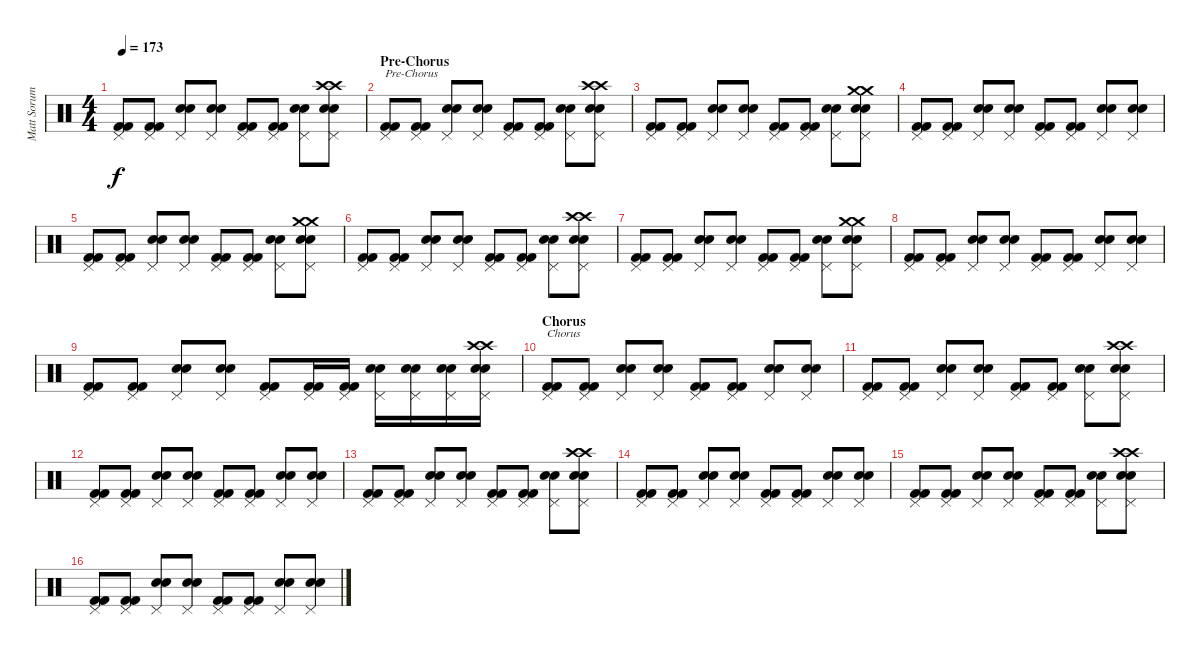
\track ("Matt Sorum" "Matt Sorum") {instrument percussion}
\staff {score}
\articulation defaults
\ts (4 4)
\tempo 173
\clef neutral
\ks c
("Pedal Hi-Hat (hit)" "Kick (hit) 2" "Kick (hit) 2").8{dy f} ("Pedal Hi-Hat (hit)" "Kick (hit) 2" "Kick (hit) 2").8 ("Pedal Hi-Hat (hit)" "Snare (hit) 2" "Snare (hit) 2").8 ("Pedal Hi-Hat (hit)" "Snare (hit) 2" "Snare (hit) 2").8 ("Pedal Hi-Hat (hit)" "Kick (hit) 2" "Kick (hit) 2").8 ("Pedal Hi-Hat (hit)" "Kick (hit) 2" "Kick (hit) 2").8 ("Pedal Hi-Hat (hit)" "Snare (hit) 2" "Snare (hit) 2").8 ("Crash high (hit)" "Crash high (hit)" "Pedal Hi-Hat (hit)" "Snare (hit) 2" "Snare (hit) 2").8 |
\section ("" "Pre-Chorus")
("Pedal Hi-Hat (hit)" "Kick (hit) 2" "Kick (hit) 2").8{txt "Pre-Chorus"} ("Pedal Hi-Hat (hit)" "Kick (hit) 2" "Kick (hit) 2").8 ("Pedal Hi-Hat (hit)" "Snare (hit) 2" "Snare (hit) 2").8 ("Pedal Hi-Hat (hit)" "Snare (hit) 2" "Snare (hit) 2").8 ("Pedal Hi-Hat (hit)" "Kick (hit) 2" "Kick (hit) 2").8 ("Pedal Hi-Hat (hit)" "Kick (hit) 2" "Kick (hit) 2").8 ("Pedal Hi-Hat (hit)" "Snare (hit) 2" "Snare (hit) 2").8 ("Crash high (hit)" "Crash high (hit)" "Pedal Hi-Hat (hit)" "Snare (hit) 2" "Snare (hit) 2").8 |
("Pedal Hi-Hat (hit)" "Kick (hit) 2" "Kick (hit) 2").8 ("Pedal Hi-Hat (hit)" "Kick (hit) 2" "Kick (hit) 2").8 ("Pedal Hi-Hat (hit)" "Snare (hit) 2" "Snare (hit) 2").8 ("Pedal Hi-Hat (hit)" "Snare (hit) 2" "Snare (hit) 2").8 ("Pedal Hi-Hat (hit)" "Kick (hit) 2" "Kick (hit) 2").8 ("Pedal Hi-Hat (hit)" "Kick (hit) 2" "Kick (hit) 2").8 ("Pedal Hi-Hat (hit)" "Snare (hit) 2" "Snare (hit) 2").8 ("Crash medium (hit)" "Crash medium (hit)" "Pedal Hi-Hat (hit)" "Snare (hit) 2" "Snare (hit) 2").8 |
("Pedal Hi-Hat (hit)" "Kick (hit) 2" "Kick (hit) 2").8 ("Pedal Hi-Hat (hit)" "Kick (hit) 2" "Kick (hit) 2").8 ("Pedal Hi-Hat (hit)" "Snare (hit) 2" "Snare (hit) 2").8 ("Pedal Hi-Hat (hit)" "Snare (hit) 2" "Snare (hit) 2").8 ("Pedal Hi-Hat (hit)" "Kick (hit) 2" "Kick (hit) 2").8 ("Pedal Hi-Hat (hit)" "Kick (hit) 2" "Kick (hit) 2").8 ("Pedal Hi-Hat (hit)" "Snare (hit) 2" "Snare (hit) 2").8 ("Pedal Hi-Hat (hit)" "Snare (hit) 2" "Snare (hit) 2").8 |
("Pedal Hi-Hat (hit)" "Kick (hit) 2" "Kick (hit) 2").8 ("Pedal Hi-Hat (hit)" "Kick (hit) 2" "Kick (hit) 2").8 ("Pedal Hi-Hat (hit)" "Snare (hit) 2" "Snare (hit) 2").8 ("Pedal Hi-Hat (hit)" "Snare (hit) 2" "Snare (hit) 2").8 ("Pedal Hi-Hat (hit)" "Kick (hit) 2" "Kick (hit) 2").8 ("Pedal Hi-Hat (hit)" "Kick (hit) 2" "Kick (hit) 2").8 ("Pedal Hi-Hat (hit)" "Snare (hit) 2" "Snare (hit) 2").8 ("Crash medium (hit)" "Crash medium (hit)" "Pedal Hi-Hat (hit)" "Snare (hit) 2" "Snare (hit) 2").8 |
("Pedal Hi-Hat (hit)" "Kick (hit) 2" "Kick (hit) 2").8 ("Pedal Hi-Hat (hit)" "Kick (hit) 2" "Kick (hit) 2").8 ("Pedal Hi-Hat (hit)" "Snare (hit) 2" "Snare (hit) 2").8 ("Pedal Hi-Hat (hit)" "Snare (hit) 2" "Snare (hit) 2").8 ("Pedal Hi-Hat (hit)" "Kick (hit) 2" "Kick (hit) 2").8 ("Pedal Hi-Hat (hit)" "Kick (hit) 2" "Kick (hit) 2").8 ("Pedal Hi-Hat (hit)" "Snare (hit) 2" "Snare (hit) 2").8 ("Crash high (hit)" "Crash high (hit)" "Pedal Hi-Hat (hit)" "Snare (hit) 2" "Snare (hit) 2").8 |
("Pedal Hi-Hat (hit)" "Kick (hit) 2" "Kick (hit) 2").8 ("Pedal Hi-Hat (hit)" "Kick (hit) 2" "Kick (hit) 2").8 ("Pedal Hi-Hat (hit)" "Snare (hit) 2" "Snare (hit) 2").8 ("Pedal Hi-Hat (hit)" "Snare (hit) 2" "Snare (hit) 2").8 ("Pedal Hi-Hat (hit)" "Kick (hit) 2" "Kick (hit) 2").8 ("Pedal Hi-Hat (hit)" "Kick (hit) 2" "Kick (hit) 2").8 ("Pedal Hi-Hat (hit)" "Snare (hit) 2" "Snare (hit) 2").8 ("Crash medium (hit)" "Crash medium (hit)" "Pedal Hi-Hat (hit)" "Snare (hit) 2" "Snare (hit) 2").8 |
("Pedal Hi-Hat (hit)" "Kick (hit) 2" "Kick (hit) 2").8 ("Pedal Hi-Hat (hit)" "Kick (hit) 2" "Kick (hit) 2").8 ("Pedal Hi-Hat (hit)" "Snare (hit) 2" "Snare (hit) 2").8 ("Pedal Hi-Hat (hit)" "Snare (hit) 2" "Snare (hit) 2").8 ("Pedal Hi-Hat (hit)" "Kick (hit) 2" "Kick (hit) 2").8 ("Pedal Hi-Hat (hit)" "Kick (hit) 2" "Kick (hit) 2").8 ("Pedal Hi-Hat (hit)" "Snare (hit) 2" "Snare (hit) 2").8 ("Pedal Hi-Hat (hit)" "Snare (hit) 2" "Snare (hit) 2").8 |
("Pedal Hi-Hat (hit)" "Kick (hit) 2" "Kick (hit) 2").8 ("Pedal Hi-Hat (hit)" "Kick (hit) 2" "Kick (hit) 2").8 ("Pedal Hi-Hat (hit)" "Snare (hit) 2" "Snare (hit) 2").8 ("Pedal Hi-Hat (hit)" "Snare (hit) 2" "Snare (hit) 2").8 ("Pedal Hi-Hat (hit)" "Kick (hit) 2" "Kick (hit) 2").8 ("Pedal Hi-Hat (hit)" "Kick (hit) 2" "Kick (hit) 2").16 ("Pedal Hi-Hat (hit)" "Kick (hit) 2" "Kick (hit) 2").16 ("Pedal Hi-Hat (hit)" "Snare (hit) 2" "Snare (hit) 2").16 ("Pedal Hi-Hat (hit)" "Snare (hit) 2" "Snare (hit) 2").16 ("Pedal Hi-Hat (hit)" "Snare (hit) 2" "Snare (hit) 2").16 ("Crash high (hit)" "Crash high (hit)" "Pedal Hi-Hat (hit)" "Snare (hit) 2" "Snare (hit) 2").16 |
\section ("" "Chorus")
("Pedal Hi-Hat (hit)" "Kick (hit) 2" "Kick (hit) 2").8{txt "Chorus"} ("Pedal Hi-Hat (hit)" "Kick (hit) 2" "Kick (hit) 2").8 ("Pedal Hi-Hat (hit)" "Snare (hit) 2" "Snare (hit) 2").8 ("Pedal Hi-Hat (hit)" "Snare (hit) 2" "Snare (hit) 2").8 ("Pedal Hi-Hat (hit)" "Kick (hit) 2" "Kick (hit) 2").8 ("Pedal Hi-Hat (hit)" "Kick (hit) 2" "Kick (hit) 2").8 ("Pedal Hi-Hat (hit)" "Snare (hit) 2" "Snare (hit) 2").8 ("Pedal Hi-Hat (hit)" "Snare (hit) 2" "Snare (hit) 2").8 |
("Pedal Hi-Hat (hit)" "Kick (hit) 2" "Kick (hit) 2").8 ("Pedal Hi-Hat (hit)" "Kick (hit) 2" "Kick (hit) 2").8 ("Pedal Hi-Hat (hit)" "Snare (hit) 2" "Snare (hit) 2").8 ("Pedal Hi-Hat (hit)" "Snare (hit) 2" "Snare (hit) 2").8 ("Pedal Hi-Hat (hit)" "Kick (hit) 2" "Kick (hit) 2").8 ("Pedal Hi-Hat (hit)" "Kick (hit) 2" "Kick (hit) 2").8 ("Pedal Hi-Hat (hit)" "Snare (hit) 2" "Snare (hit) 2").8 ("Crash high (hit)" "Crash high (hit)" "Pedal Hi-Hat (hit)" "Snare (hit) 2" "Snare (hit) 2").8 |
("Pedal Hi-Hat (hit)" "Kick (hit) 2" "Kick (hit) 2").8 ("Pedal Hi-Hat (hit)" "Kick (hit) 2" "Kick (hit) 2").8 ("Pedal Hi-Hat (hit)" "Snare (hit) 2" "Snare (hit) 2").8 ("Pedal Hi-Hat (hit)" "Snare (hit) 2" "Snare (hit) 2").8 ("Pedal Hi-Hat (hit)" "Kick (hit) 2" "Kick (hit) 2").8 ("Pedal Hi-Hat (hit)" "Kick (hit) 2" "Kick (hit) 2").8 ("Pedal Hi-Hat (hit)" "Snare (hit) 2" "Snare (hit) 2").8 ("Pedal Hi-Hat (hit)" "Snare (hit) 2" "Snare (hit) 2").8 |
("Pedal Hi-Hat (hit)" "Kick (hit) 2" "Kick (hit) 2").8 ("Pedal Hi-Hat (hit)" "Kick (hit) 2" "Kick (hit) 2").8 ("Pedal Hi-Hat (hit)" "Snare (hit) 2" "Snare (hit) 2").8 ("Pedal Hi-Hat (hit)" "Snare (hit) 2" "Snare (hit) 2").8 ("Pedal Hi-Hat (hit)" "Kick (hit) 2" "Kick (hit) 2").8 ("Pedal Hi-Hat (hit)" "Kick (hit) 2" "Kick (hit) 2").8 ("Pedal Hi-Hat (hit)" "Snare (hit) 2" "Snare (hit) 2").8 ("Crash high (hit)" "Crash high (hit)" "Pedal Hi-Hat (hit)" "Snare (hit) 2" "Snare (hit) 2").8 |
("Pedal Hi-Hat (hit)" "Kick (hit) 2" "Kick (hit) 2").8 ("Pedal Hi-Hat (hit)" "Kick (hit) 2" "Kick (hit) 2").8 ("Pedal Hi-Hat (hit)" "Snare (hit) 2" "Snare (hit) 2").8 ("Pedal Hi-Hat (hit)" "Snare (hit) 2" "Snare (hit) 2").8 ("Pedal Hi-Hat (hit)" "Kick (hit) 2" "Kick (hit) 2").8 ("Pedal Hi-Hat (hit)" "Kick (hit) 2" "Kick (hit) 2").8 ("Pedal Hi-Hat (hit)" "Snare (hit) 2" "Snare (hit) 2").8 ("Pedal Hi-Hat (hit)" "Snare (hit) 2" "Snare (hit) 2").8 |
("Pedal Hi-Hat (hit)" "Kick (hit) 2" "Kick (hit) 2").8 ("Pedal Hi-Hat (hit)" "Kick (hit) 2" "Kick (hit) 2").8 ("Pedal Hi-Hat (hit)" "Snare (hit) 2" "Snare (hit) 2").8 ("Pedal Hi-Hat (hit)" "Snare (hit) 2" "Snare (hit) 2").8 ("Pedal Hi-Hat (hit)" "Kick (hit) 2" "Kick (hit) 2").8 ("Pedal Hi-Hat (hit)" "Kick (hit) 2" "Kick (hit) 2").8 ("Pedal Hi-Hat (hit)" "Snare (hit) 2" "Snare (hit) 2").8 ("Crash high (hit)" "Crash high (hit)" "Pedal Hi-Hat (hit)" "Snare (hit) 2" "Snare (hit) 2").8 |
("Pedal Hi-Hat (hit)" "Kick (hit) 2" "Kick (hit) 2").8 ("Pedal Hi-Hat (hit)" "Kick (hit) 2" "Kick (hit) 2").8 ("Pedal Hi-Hat (hit)" "Snare (hit) 2" "Snare (hit) 2").8 ("Pedal Hi-Hat (hit)" "Snare (hit) 2" "Snare (hit) 2").8 ("Pedal Hi-Hat (hit)" "Kick (hit) 2" "Kick (hit) 2").8 ("Pedal Hi-Hat (hit)" "Kick (hit) 2" "Kick (hit) 2").8 ("Pedal Hi-Hat (hit)" "Snare (hit) 2" "Snare (hit) 2").8 ("Pedal Hi-Hat (hit)" "Snare (hit) 2" "Snare (hit) 2").8
